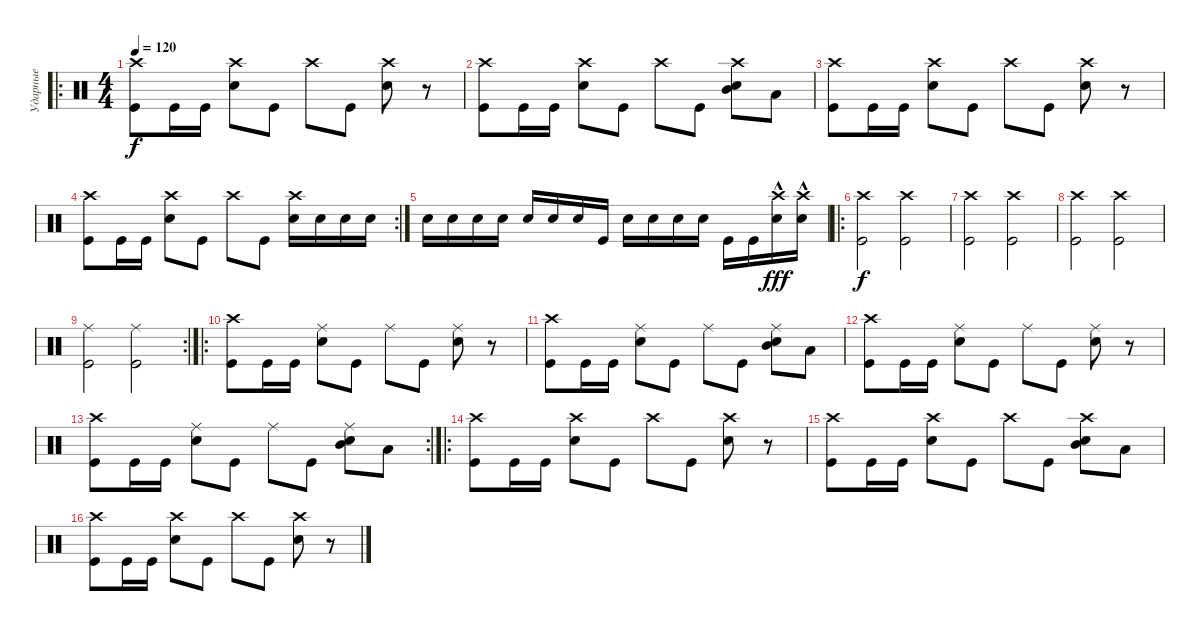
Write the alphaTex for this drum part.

\track ("Ударные" "Ударные") {instrument percussion}
\staff {score}
\articulation defaults
\ro
\ts (4 4)
\tempo 120
\clef neutral
\ks c
("Kick (hit)" "Crash high (hit)").8{dy f} "Kick (hit)".16 "Kick (hit)".16 ("Snare (hit) 2" "Crash high (hit)").8 "Kick (hit)".8 "Crash high (hit)".8 "Kick (hit)".8 ("Snare (hit) 2" "Crash high (hit)").8 r.8 |
("Kick (hit)" "Crash high (hit)").8 "Kick (hit)".16 "Kick (hit)".16 ("Snare (hit) 2" "Crash high (hit)").8 "Kick (hit)".8 "Crash high (hit)".8 "Kick (hit)".8 ("Snare (hit) 2" "Crash high (hit)" "Mid Tom (hit)").8 "Low Tom (hit)".8 |
("Kick (hit)" "Crash high (hit)").8 "Kick (hit)".16 "Kick (hit)".16 ("Snare (hit) 2" "Crash high (hit)").8 "Kick (hit)".8 "Crash high (hit)".8 "Kick (hit)".8 ("Snare (hit) 2" "Crash high (hit)").8 r.8 |
\rc 2
("Kick (hit)" "Crash high (hit)").8 "Kick (hit)".16 "Kick (hit)".16 ("Snare (hit) 2" "Crash high (hit)").8 "Kick (hit)".8 "Crash high (hit)".8 "Kick (hit)".8 ("Snare (hit) 2" "Crash high (hit)").16 "Snare (hit) 2".16 "Snare (hit) 2".16 "Snare (hit) 2".16 |
"Snare (hit) 2".16 "Snare (hit) 2".16 "Snare (hit) 2".16 "Snare (hit) 2".16 "Snare (hit) 2".16 "Snare (hit) 2".16 "Snare (hit) 2".16 "Kick (hit)".16 "Snare (hit) 2".16 "Snare (hit) 2".16 "Snare (hit) 2".16 "Snare (hit) 2".16 "Kick (hit)".16 "Kick (hit)".16 ("Snare (hit) 2" "Crash high (hit)"{hac}).16{dy fff} ("Snare (hit) 2" "Crash high (hit)"{hac}).16 |
\ro
("Crash high (hit)" "Kick (hit)").2{dy f} ("Kick (hit)" "Crash high (hit)").2 |
("Kick (hit)" "Crash high (hit)").2 ("Kick (hit)" "Crash high (hit)").2 |
("Kick (hit)" "Crash high (hit)").2 ("Kick (hit)" "Crash high (hit)").2 |
\rc 2
("Kick (hit)" "Ride (middle)").2 ("Kick (hit)" "Ride (middle)").2 |
\ro
("Kick (hit)" "Crash high (hit)").8 "Kick (hit)".16 "Kick (hit)".16 ("Snare (hit) 2" "Ride (middle)").8 "Kick (hit)".8 "Ride (middle)".8 "Kick (hit)".8 ("Snare (hit) 2" "Ride (middle)").8 r.8 |
("Kick (hit)" "Crash high (hit)").8 "Kick (hit)".16 "Kick (hit)".16 ("Snare (hit) 2" "Ride (middle)").8 "Kick (hit)".8 "Ride (middle)".8 "Kick (hit)".8 ("Snare (hit) 2" "Ride (middle)" "Mid Tom (hit)").8 "Low Tom (hit)".8 |
("Kick (hit)" "Crash high (hit)").8 "Kick (hit)".16 "Kick (hit)".16 ("Snare (hit) 2" "Ride (middle)").8 "Kick (hit)".8 "Ride (middle)".8 "Kick (hit)".8 ("Snare (hit) 2" "Ride (middle)").8 r.8 |
\rc 2
("Kick (hit)" "Crash high (hit)").8 "Kick (hit)".16 "Kick (hit)".16 ("Snare (hit) 2" "Ride (middle)").8 "Kick (hit)".8 "Ride (middle)".8 "Kick (hit)".8 ("Snare (hit) 2" "Ride (middle)" "Mid Tom (hit)").8 "Low Tom (hit)".8 |
\ro
("Kick (hit)" "Crash high (hit)").8 "Kick (hit)".16 "Kick (hit)".16 ("Snare (hit) 2" "Crash high (hit)").8 "Kick (hit)".8 "Crash high (hit)".8 "Kick (hit)".8 ("Snare (hit) 2" "Crash high (hit)").8 r.8 |
("Kick (hit)" "Crash high (hit)").8 "Kick (hit)".16 "Kick (hit)".16 ("Snare (hit) 2" "Crash high (hit)").8 "Kick (hit)".8 "Crash high (hit)".8 "Kick (hit)".8 ("Snare (hit) 2" "Crash high (hit)" "Mid Tom (hit)").8 "Low Tom (hit)".8 |
("Kick (hit)" "Crash high (hit)").8 "Kick (hit)".16 "Kick (hit)".16 ("Snare (hit) 2" "Crash high (hit)").8 "Kick (hit)".8 "Crash high (hit)".8 "Kick (hit)".8 ("Snare (hit) 2" "Crash high (hit)").8 r.8
